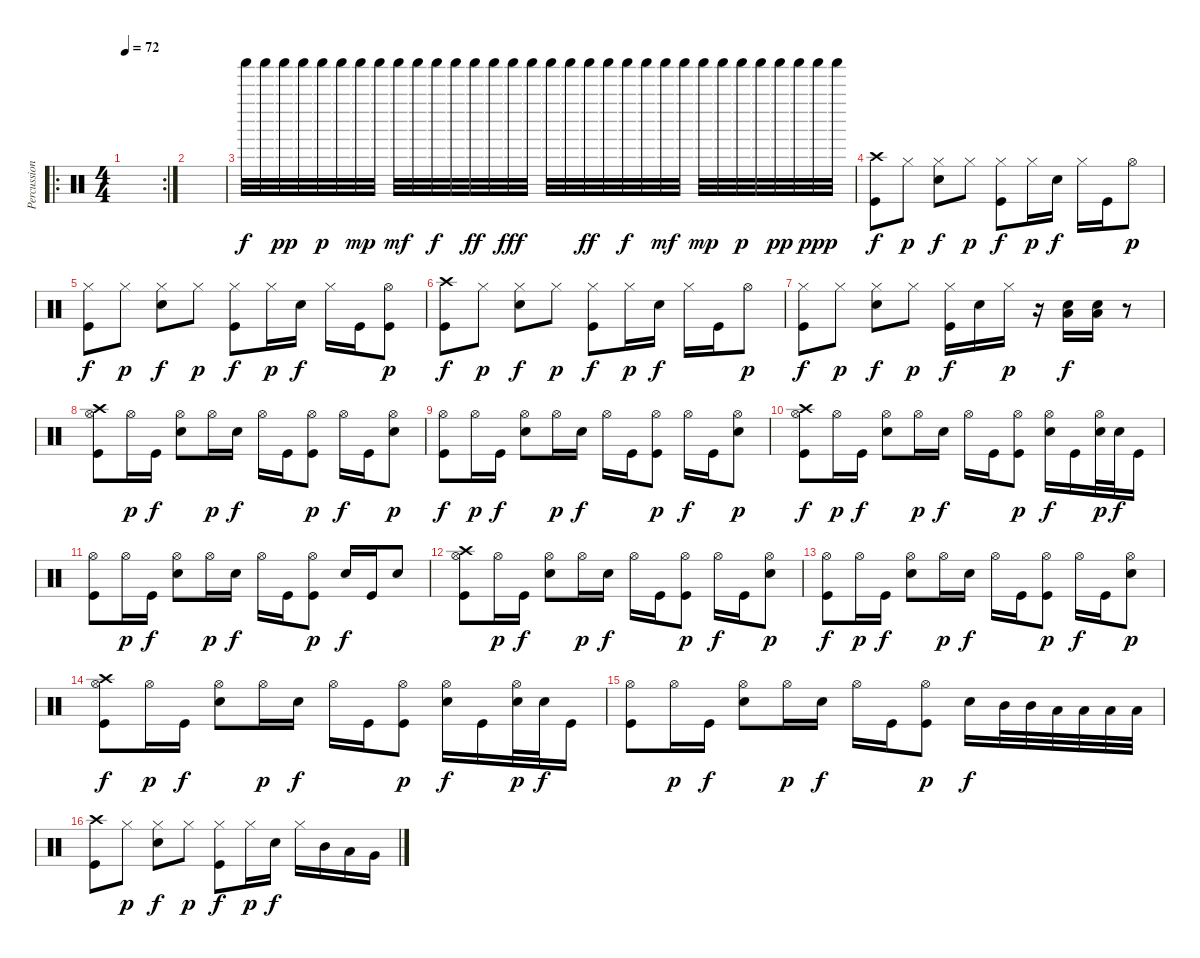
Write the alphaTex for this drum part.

\track ("Percussion" "Percussion") {instrument percussion}
\staff {score}
\articulation defaults
\ro
\rc 2
\ts (4 4)
\tempo 72
\clef neutral
\ks c
|
|
"Shaker (hit)".32 "Shaker (hit)".32 "Shaker (hit)".32{dy pp} "Shaker (hit)".32 "Shaker (hit)".32{dy p} "Shaker (hit)".32 "Shaker (hit)".32{dy mp} "Shaker (hit)".32 "Shaker (hit)".32{dy mf} "Shaker (hit)".32 "Shaker (hit)".32{dy f} "Shaker (hit)".32 "Shaker (hit)".32{dy ff} "Shaker (hit)".32 "Shaker (hit)".32{dy fff} "Shaker (hit)".32 "Shaker (hit)".32 "Shaker (hit)".32 "Shaker (hit)".32{dy ff} "Shaker (hit)".32 "Shaker (hit)".32{dy f} "Shaker (hit)".32 "Shaker (hit)".32{dy mf} "Shaker (hit)".32 "Shaker (hit)".32{dy mp} "Shaker (hit)".32 "Shaker (hit)".32{dy p} "Shaker (hit)".32 "Shaker (hit)".32{dy pp} "Shaker (hit)".32 "Shaker (hit)".32{dy ppp} "Shaker (hit)".32 |
("Crash high (hit)" "Kick (hit)").8{dy f} "Hi-Hat (closed)".8{dy p} ("Hi-Hat (closed)" "Electric Snare (hit)").8{dy f} "Hi-Hat (closed)".8{dy p} ("Hi-Hat (closed)" "Kick (hit)").8{dy f} "Hi-Hat (closed)".16{dy p} "Electric Snare (hit)".16{dy f} "Hi-Hat (closed)".16 "Kick (hit)".16 "Hi-Hat (open)".8{dy p} |
("Hi-Hat (closed)" "Kick (hit)").8{dy f} "Hi-Hat (closed)".8{dy p} ("Hi-Hat (closed)" "Electric Snare (hit)").8{dy f} "Hi-Hat (closed)".8{dy p} ("Hi-Hat (closed)" "Kick (hit)").8{dy f} "Hi-Hat (closed)".16{dy p} "Electric Snare (hit)".16{dy f} "Hi-Hat (closed)".16 "Kick (hit)".16 ("Hi-Hat (open)" "Kick (hit)").8{dy p} |
("Crash high (hit)" "Kick (hit)").8{dy f} "Hi-Hat (closed)".8{dy p} ("Hi-Hat (closed)" "Electric Snare (hit)").8{dy f} "Hi-Hat (closed)".8{dy p} ("Hi-Hat (closed)" "Kick (hit)").8{dy f} "Hi-Hat (closed)".16{dy p} "Electric Snare (hit)".16{dy f} "Hi-Hat (closed)".16 "Kick (hit)".16 "Hi-Hat (open)".8{dy p} |
("Hi-Hat (closed)" "Kick (hit)").8{dy f} "Hi-Hat (closed)".8{dy p} ("Hi-Hat (closed)" "Electric Snare (hit)").8{dy f} "Hi-Hat (closed)".8{dy p} ("Hi-Hat (closed)" "Kick (hit)").16{dy f} "Electric Snare (hit)".16 "Hi-Hat (closed)".16{dy p} r.16 ("Low Floor Tom (hit)" "Electric Snare (hit)").16{dy f} ("Low Floor Tom (hit)" "Electric Snare (hit)").16 r.8 |
("Crash high (hit)" "Hi-Hat (open)" "Kick (hit)").8 "Hi-Hat (open)".16{dy p} "Kick (hit)".16{dy f} ("Hi-Hat (open)" "Electric Snare (hit)").8 "Hi-Hat (open)".16{dy p} "Electric Snare (hit)".16{dy f} "Hi-Hat (open)".16 "Kick (hit)".16 ("Hi-Hat (open)" "Kick (hit)").8{dy p} "Hi-Hat (open)".16{dy f} "Kick (hit)".16 ("Hi-Hat (open)" "Electric Snare (hit)").8{dy p} |
("Hi-Hat (open)" "Kick (hit)").8{dy f} "Hi-Hat (open)".16{dy p} "Kick (hit)".16{dy f} ("Hi-Hat (open)" "Electric Snare (hit)").8 "Hi-Hat (open)".16{dy p} "Electric Snare (hit)".16{dy f} "Hi-Hat (open)".16 "Kick (hit)".16 ("Hi-Hat (open)" "Kick (hit)").8{dy p} "Hi-Hat (open)".16{dy f} "Kick (hit)".16 ("Hi-Hat (open)" "Electric Snare (hit)").8{dy p} |
("Crash high (hit)" "Hi-Hat (open)" "Kick (hit)").8{dy f} "Hi-Hat (open)".16{dy p} "Kick (hit)".16{dy f} ("Hi-Hat (open)" "Electric Snare (hit)").8 "Hi-Hat (open)".16{dy p} "Electric Snare (hit)".16{dy f} "Hi-Hat (open)".16 "Kick (hit)".16 ("Hi-Hat (open)" "Kick (hit)").8{dy p} ("Hi-Hat (open)" "Electric Snare (hit)").16{dy f} "Kick (hit)".16 ("Hi-Hat (open)" "Electric Snare (hit)").32{dy p} "Electric Snare (hit)".32{dy f} "Kick (hit)".16 |
("Hi-Hat (open)" "Kick (hit)").8 "Hi-Hat (open)".16{dy p} "Kick (hit)".16{dy f} ("Hi-Hat (open)" "Electric Snare (hit)").8 "Hi-Hat (open)".16{dy p} "Electric Snare (hit)".16{dy f} "Hi-Hat (open)".16 "Kick (hit)".16 ("Hi-Hat (open)" "Kick (hit)").8{dy p} "Electric Snare (hit)".16{dy f} "Kick (hit)".16 "Electric Snare (hit)".8 |
("Crash high (hit)" "Hi-Hat (open)" "Kick (hit)").8 "Hi-Hat (open)".16{dy p} "Kick (hit)".16{dy f} ("Hi-Hat (open)" "Electric Snare (hit)").8 "Hi-Hat (open)".16{dy p} "Electric Snare (hit)".16{dy f} "Hi-Hat (open)".16 "Kick (hit)".16 ("Hi-Hat (open)" "Kick (hit)").8{dy p} "Hi-Hat (open)".16{dy f} "Kick (hit)".16 ("Hi-Hat (open)" "Electric Snare (hit)").8{dy p} |
("Hi-Hat (open)" "Kick (hit)").8{dy f} "Hi-Hat (open)".16{dy p} "Kick (hit)".16{dy f} ("Hi-Hat (open)" "Electric Snare (hit)").8 "Hi-Hat (open)".16{dy p} "Electric Snare (hit)".16{dy f} "Hi-Hat (open)".16 "Kick (hit)".16 ("Hi-Hat (open)" "Kick (hit)").8{dy p} "Hi-Hat (open)".16{dy f} "Kick (hit)".16 ("Hi-Hat (open)" "Electric Snare (hit)").8{dy p} |
("Crash high (hit)" "Hi-Hat (open)" "Kick (hit)").8{dy f} "Hi-Hat (open)".16{dy p} "Kick (hit)".16{dy f} ("Hi-Hat (open)" "Electric Snare (hit)").8 "Hi-Hat (open)".16{dy p} "Electric Snare (hit)".16{dy f} "Hi-Hat (open)".16 "Kick (hit)".16 ("Hi-Hat (open)" "Kick (hit)").8{dy p} ("Hi-Hat (open)" "Electric Snare (hit)").16{dy f} "Kick (hit)".16 ("Hi-Hat (open)" "Electric Snare (hit)").32{dy p} "Electric Snare (hit)".32{dy f} "Kick (hit)".16 |
("Hi-Hat (open)" "Kick (hit)").8 "Hi-Hat (open)".16{dy p} "Kick (hit)".16{dy f} ("Hi-Hat (open)" "Electric Snare (hit)").8 "Hi-Hat (open)".16{dy p} "Electric Snare (hit)".16{dy f} "Hi-Hat (open)".16 "Kick (hit)".16 ("Hi-Hat (open)" "Kick (hit)").8{dy p} "Electric Snare (hit)".16{dy f} "Mid Tom (hit)".32 "Mid Tom (hit)".32 "Low Tom (hit)".32 "Low Tom (hit)".32 "Low Tom (hit)".32 "Low Floor Tom (hit)".32 |
("Crash high (hit)" "Kick (hit)").8 "Hi-Hat (closed)".8{dy p} ("Hi-Hat (closed)" "Electric Snare (hit)").8{dy f} "Hi-Hat (closed)".8{dy p} ("Hi-Hat (closed)" "Kick (hit)").8{dy f} "Hi-Hat (closed)".16{dy p} "Electric Snare (hit)".16{dy f} "Hi-Hat (closed)".16 "Mid Tom (hit)".16 "Low Tom (hit)".16 "Very Low Tom (hit)".16
